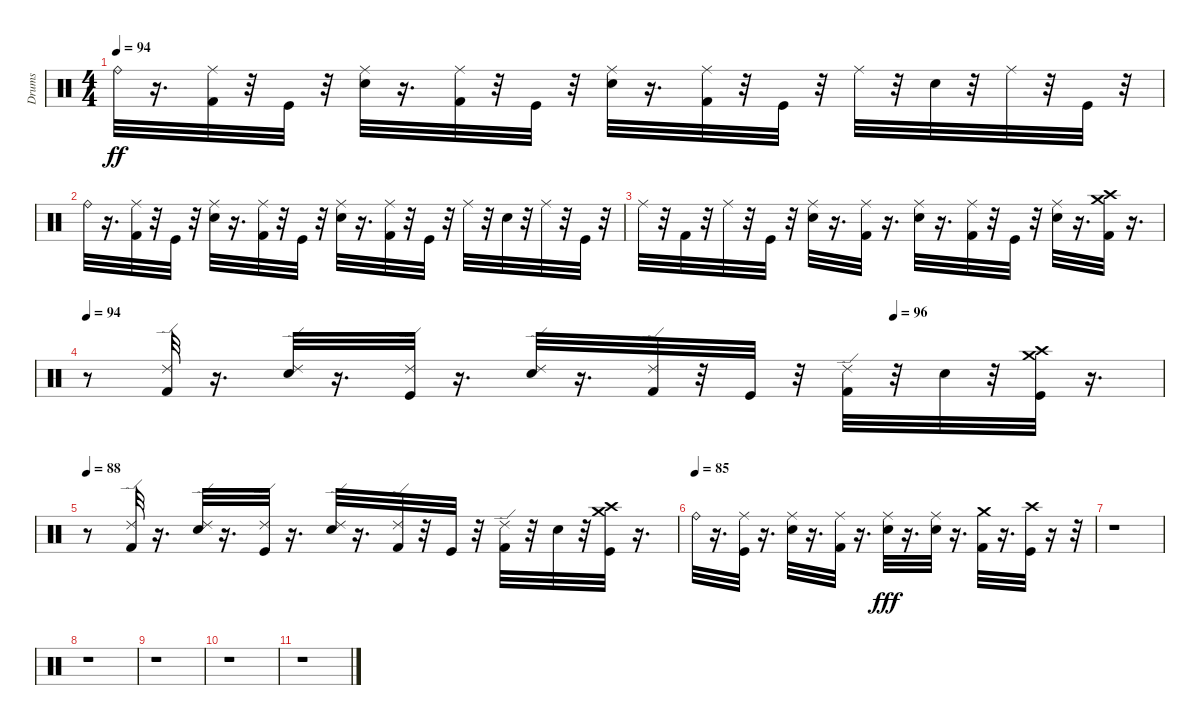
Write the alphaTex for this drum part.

\track ("Drums" "Drums") {instrument percussion}
\staff {score}
\articulation defaults
\ts (4 4)
\tempo 94
\clef neutral
\ks c "Ride (bell)".32{dy ff}
r.16{d} ("Ride (middle)" "Kick (hit) 2").32 r.32 "Kick (hit)".32 r.32 ("Ride (middle)" "Electric Snare (hit)").32 r.16{d} ("Ride (middle)" "Kick (hit) 2").32 r.32 "Kick (hit)".32 r.32 ("Ride (middle)" "Electric Snare (hit)").32 r.16{d} ("Ride (middle)" "Kick (hit) 2").32 r.32 "Kick (hit)".32 r.32 "Ride (middle)".32 r.32 "Electric Snare (hit)".32 r.32 "Ride (middle)".32 r.32 "Kick (hit)".32 r.32 |
"Ride (bell)".32 r.16{d} ("Ride (middle)" "Kick (hit) 2").32 r.32 "Kick (hit)".32 r.32 ("Ride (middle)" "Electric Snare (hit)").32 r.16{d} ("Ride (middle)" "Kick (hit) 2").32 r.32 "Kick (hit)".32 r.32 ("Ride (middle)" "Electric Snare (hit)").32 r.16{d} ("Ride (middle)" "Kick (hit) 2").32 r.32 "Kick (hit)".32 r.32 "Ride (middle)".32 r.32 "Electric Snare (hit)".32 r.32 "Ride (middle)".32 r.32 "Kick (hit)".32 r.32 |
"Ride (middle)".32 r.32 "Kick (hit) 2".32 r.32 "Ride (middle)".32 r.32 "Kick (hit)".32 r.32 ("Ride (middle)" "Electric Snare (hit)").32 r.16{d} ("Ride (middle)" "Kick (hit) 2").32 r.16{d} ("Ride (middle)" "Electric Snare (hit)").32 r.16{d} ("Ride (middle)" "Kick (hit) 2").32 r.32 "Kick (hit)".32 r.32 ("Electric Snare (hit)" "Ride (middle)").32 r.16{d} ("Crash high (hit)" "Kick (hit) 2" "Crash medium (hit)").32 r.16{d} |
\tempo 94
\tempo (96 0.75)
r.8 ("Ride (edge) 2" "Kick (hit) 2").32 r.16{d} ("Ride (edge) 2" "Electric Snare (hit)").32 r.16{d} ("Ride (edge) 2" "Kick (hit)").32 r.16{d} ("Ride (edge) 2" "Electric Snare (hit)").32 r.16{d} ("Ride (edge) 2" "Kick (hit) 2").32 r.32 "Kick (hit)".32 r.32 ("Ride (edge) 2" "Kick (hit) 2").32 r.32 "Electric Snare (hit)".32 r.32 ("Crash medium (hit)" "Kick (hit)" "Crash high (hit)").32 r.16{d} |
\tempo 88
r.8 ("Ride (edge) 2" "Kick (hit) 2").32 r.16{d} ("Ride (edge) 2" "Electric Snare (hit)").32 r.16{d} ("Ride (edge) 2" "Kick (hit)").32 r.16{d} ("Ride (edge) 2" "Electric Snare (hit)").32 r.16{d} ("Ride (edge) 2" "Kick (hit) 2").32 r.32 "Kick (hit)".32 r.32 ("Ride (edge) 2" "Kick (hit) 2").32 r.32 "Electric Snare (hit)".32 r.32 ("Crash medium (hit)" "Kick (hit)" "Crash high (hit)").32 r.16{d} |
\tempo (85)
"Ride (bell)".32 r.16{d} ("Ride (middle)" "Kick (hit)").32 r.16{d} ("Ride (middle)" "Electric Snare (hit)").32 r.16{d} ("Ride (middle)" "Kick (hit) 2").32 r.16{d} ("Ride (middle)" "Electric Snare (hit)").32{dy fff} r.16{d} ("Ride (middle)" "Electric Snare (hit)").32 r.16{d} ("Crash medium (hit)" "Kick (hit) 2").32 r.16{d} ("Crash high (hit)" "Kick (hit)").32 r.16 r.32 |
r.1 |
r.1 |
r.1 |
r.1 |
r.1
